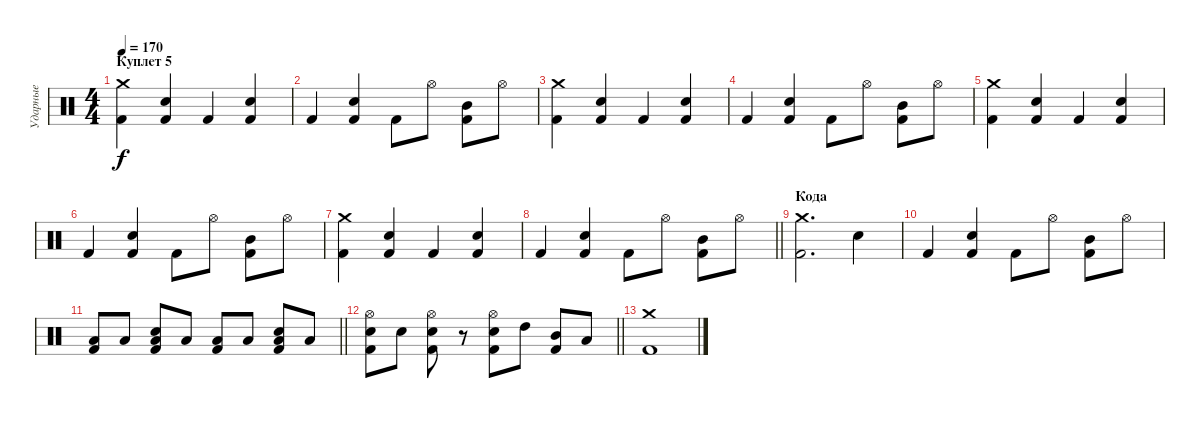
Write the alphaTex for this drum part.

\track ("Ударные" "Ударные") {instrument percussion}
\staff {score}
\articulation defaults
\ts (4 4)
\section ("" "Куплет 5")
\tempo 170
\clef neutral
\ks c
("Kick (hit) 2" "Crash medium (hit)").4{dy f} ("Kick (hit) 2" "Electric Snare (hit)").4 "Kick (hit) 2".4 ("Kick (hit) 2" "Electric Snare (hit)").4 |
"Kick (hit) 2".4 ("Kick (hit) 2" "Electric Snare (hit)").4 "Kick (hit) 2".8 "Hi-Hat (open)".8 ("Kick (hit) 2" "Mid Tom (hit)").8 "Hi-Hat (open)".8 |
("Kick (hit) 2" "Crash medium (hit)").4 ("Kick (hit) 2" "Electric Snare (hit)").4 "Kick (hit) 2".4 ("Kick (hit) 2" "Electric Snare (hit)").4 |
"Kick (hit) 2".4 ("Kick (hit) 2" "Electric Snare (hit)").4 "Kick (hit) 2".8 "Hi-Hat (open)".8 ("Kick (hit) 2" "Mid Tom (hit)").8 "Hi-Hat (open)".8 |
("Kick (hit) 2" "Crash medium (hit)").4 ("Kick (hit) 2" "Electric Snare (hit)").4 "Kick (hit) 2".4 ("Kick (hit) 2" "Electric Snare (hit)").4 |
"Kick (hit) 2".4 ("Kick (hit) 2" "Electric Snare (hit)").4 "Kick (hit) 2".8 "Hi-Hat (open)".8 ("Kick (hit) 2" "Mid Tom (hit)").8 "Hi-Hat (open)".8 |
("Kick (hit) 2" "Crash medium (hit)").4 ("Kick (hit) 2" "Electric Snare (hit)").4 "Kick (hit) 2".4 ("Kick (hit) 2" "Electric Snare (hit)").4 |
\barLineRight lightlight "Kick (hit) 2".4
("Kick (hit) 2" "Electric Snare (hit)").4 "Kick (hit) 2".8 "Hi-Hat (open)".8 ("Kick (hit) 2" "Mid Tom (hit)").8 "Hi-Hat (open)".8 |
\section ("" "Кода")
("Kick (hit) 2" "Crash medium (hit)").2{d} "Electric Snare (hit)".4 |
"Kick (hit) 2".4 ("Kick (hit) 2" "Electric Snare (hit)").4 "Kick (hit) 2".8 "Hi-Hat (open)".8 ("Kick (hit) 2" "Mid Tom (hit)").8 "Hi-Hat (open)".8 |
\barLineRight lightlight
("Kick (hit) 2" "Low Floor Tom (hit)").8 "Low Tom (hit)".8 ("Kick (hit) 2" "Low Floor Tom (hit)" "Electric Snare (hit)").8 "Low Tom (hit)".8 ("Kick (hit) 2" "Low Floor Tom (hit)").8 "Low Tom (hit)".8 ("Kick (hit) 2" "Low Floor Tom (hit)" "Electric Snare (hit)").8 "Low Tom (hit)".8 |
\barLineRight lightlight
("Kick (hit) 2" "Hi-Hat (open)" "Electric Snare (hit)").8 "Electric Snare (hit)".8 ("Kick (hit) 2" "Hi-Hat (open)" "Electric Snare (hit)").8 r.8 ("Kick (hit) 2" "Hi-Hat (open)" "Electric Snare (hit)").8 "High Tom (hit)".8 ("Kick (hit) 2" "Mid Tom (hit)").8 "Low Tom (hit)".8 |
("Kick (hit) 2" "Crash medium (hit)").1
